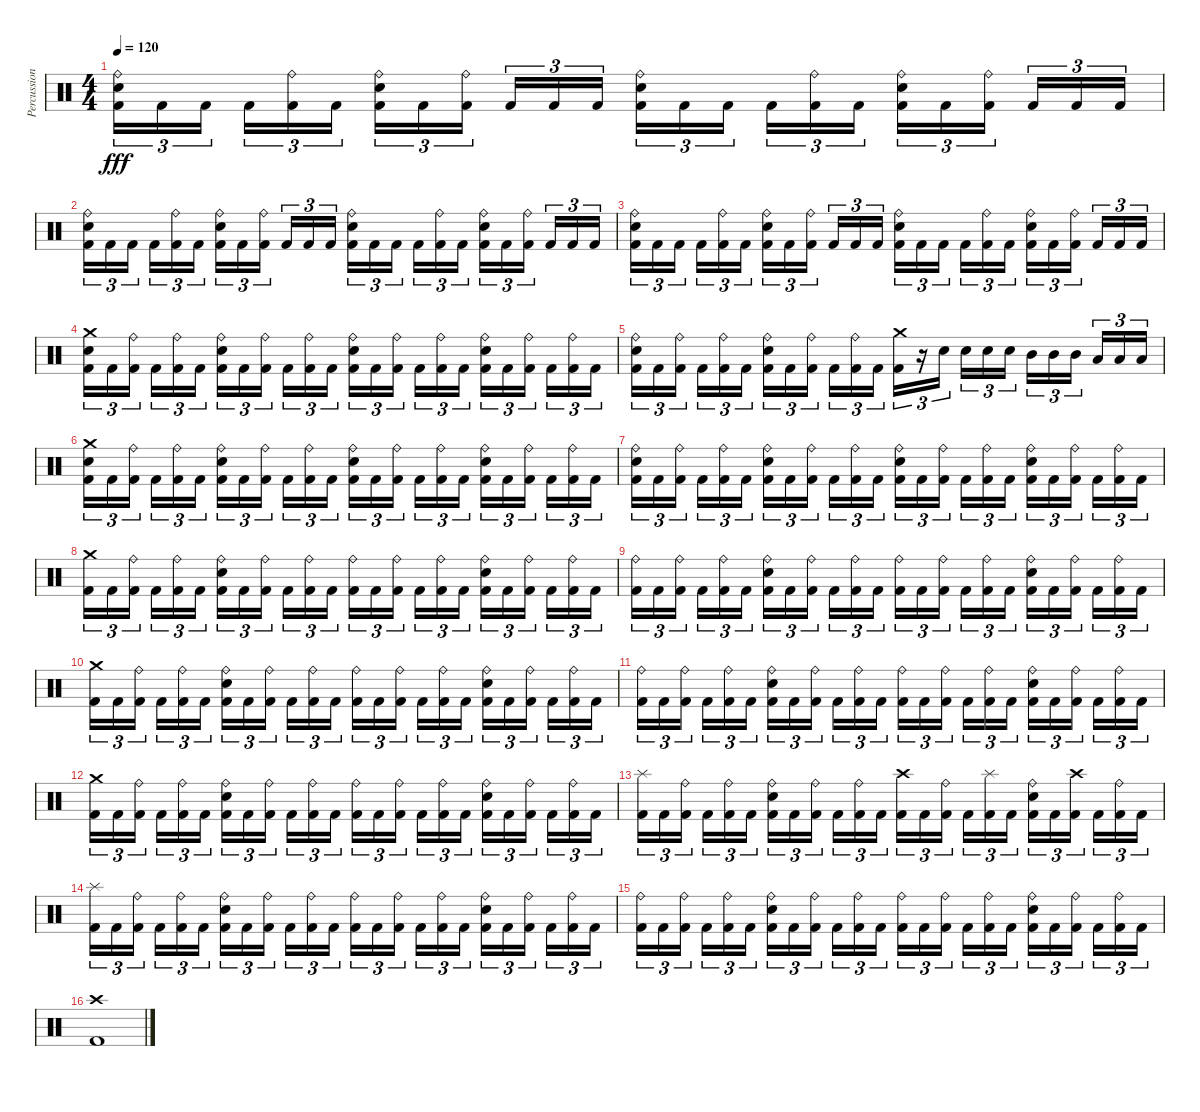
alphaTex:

\track ("Percussions" "Percussion") {instrument percussion}
\staff {score}
\articulation defaults
\ts (4 4)
\tempo 120
\clef neutral
\ks c
("Ride (bell)" "Snare (hit) 2" "Kick (hit) 2").16{tu (3 2) dy fff} "Kick (hit) 2".16{tu (3 2)} "Kick (hit) 2".16{tu (3 2) beam splitsecondary} "Kick (hit) 2".16{tu (3 2)} ("Ride (bell)" "Kick (hit) 2").16{tu (3 2)} "Kick (hit) 2".16{tu (3 2)} ("Ride (bell)" "Snare (hit) 2" "Kick (hit) 2").16{tu (3 2)} "Kick (hit) 2".16{tu (3 2)} ("Ride (bell)" "Kick (hit) 2").16{tu (3 2) beam splitsecondary} "Kick (hit) 2".16{tu (3 2)} "Kick (hit) 2".16{tu (3 2)} "Kick (hit) 2".16{tu (3 2)} ("Ride (bell)" "Snare (hit) 2" "Kick (hit) 2").16{tu (3 2)} "Kick (hit) 2".16{tu (3 2)} "Kick (hit) 2".16{tu (3 2) beam splitsecondary} "Kick (hit) 2".16{tu (3 2)} ("Ride (bell)" "Kick (hit) 2").16{tu (3 2)} "Kick (hit) 2".16{tu (3 2)} ("Ride (bell)" "Snare (hit) 2" "Kick (hit) 2").16{tu (3 2)} "Kick (hit) 2".16{tu (3 2)} ("Ride (bell)" "Kick (hit) 2").16{tu (3 2) beam splitsecondary} "Kick (hit) 2".16{tu (3 2)} "Kick (hit) 2".16{tu (3 2)} "Kick (hit) 2".16{tu (3 2)} |
("Ride (bell)" "Snare (hit) 2" "Kick (hit) 2").16{tu (3 2)} "Kick (hit) 2".16{tu (3 2)} "Kick (hit) 2".16{tu (3 2) beam splitsecondary} "Kick (hit) 2".16{tu (3 2)} ("Ride (bell)" "Kick (hit) 2").16{tu (3 2)} "Kick (hit) 2".16{tu (3 2)} ("Ride (bell)" "Snare (hit) 2" "Kick (hit) 2").16{tu (3 2)} "Kick (hit) 2".16{tu (3 2)} ("Ride (bell)" "Kick (hit) 2").16{tu (3 2) beam splitsecondary} "Kick (hit) 2".16{tu (3 2)} "Kick (hit) 2".16{tu (3 2)} "Kick (hit) 2".16{tu (3 2)} ("Ride (bell)" "Snare (hit) 2" "Kick (hit) 2").16{tu (3 2)} "Kick (hit) 2".16{tu (3 2)} "Kick (hit) 2".16{tu (3 2) beam splitsecondary} "Kick (hit) 2".16{tu (3 2)} ("Ride (bell)" "Kick (hit) 2").16{tu (3 2)} "Kick (hit) 2".16{tu (3 2)} ("Ride (bell)" "Snare (hit) 2" "Kick (hit) 2").16{tu (3 2)} "Kick (hit) 2".16{tu (3 2)} ("Ride (bell)" "Kick (hit) 2").16{tu (3 2) beam splitsecondary} "Kick (hit) 2".16{tu (3 2)} "Kick (hit) 2".16{tu (3 2)} "Kick (hit) 2".16{tu (3 2)} |
("Ride (bell)" "Snare (hit) 2" "Kick (hit) 2").16{tu (3 2)} "Kick (hit) 2".16{tu (3 2)} "Kick (hit) 2".16{tu (3 2) beam splitsecondary} "Kick (hit) 2".16{tu (3 2)} ("Ride (bell)" "Kick (hit) 2").16{tu (3 2)} "Kick (hit) 2".16{tu (3 2)} ("Ride (bell)" "Snare (hit) 2" "Kick (hit) 2").16{tu (3 2)} "Kick (hit) 2".16{tu (3 2)} ("Ride (bell)" "Kick (hit) 2").16{tu (3 2) beam splitsecondary} "Kick (hit) 2".16{tu (3 2)} "Kick (hit) 2".16{tu (3 2)} "Kick (hit) 2".16{tu (3 2)} ("Ride (bell)" "Snare (hit) 2" "Kick (hit) 2").16{tu (3 2)} "Kick (hit) 2".16{tu (3 2)} "Kick (hit) 2".16{tu (3 2) beam splitsecondary} "Kick (hit) 2".16{tu (3 2)} ("Ride (bell)" "Kick (hit) 2").16{tu (3 2)} "Kick (hit) 2".16{tu (3 2)} ("Ride (bell)" "Snare (hit) 2" "Kick (hit) 2").16{tu (3 2)} "Kick (hit) 2".16{tu (3 2)} ("Ride (bell)" "Kick (hit) 2").16{tu (3 2) beam splitsecondary} "Kick (hit) 2".16{tu (3 2)} "Kick (hit) 2".16{tu (3 2)} "Kick (hit) 2".16{tu (3 2)} |
("Crash medium (hit)" "Snare (hit) 2" "Kick (hit) 2").16{tu (3 2)} "Kick (hit) 2".16{tu (3 2)} ("Ride (bell)" "Kick (hit) 2").16{tu (3 2) beam splitsecondary} "Kick (hit) 2".16{tu (3 2)} ("Ride (bell)" "Kick (hit) 2").16{tu (3 2)} "Kick (hit) 2".16{tu (3 2)} ("Ride (bell)" "Snare (hit) 2" "Kick (hit) 2").16{tu (3 2)} "Kick (hit) 2".16{tu (3 2)} ("Ride (bell)" "Kick (hit) 2").16{tu (3 2) beam splitsecondary} "Kick (hit) 2".16{tu (3 2)} ("Ride (bell)" "Kick (hit) 2").16{tu (3 2)} "Kick (hit) 2".16{tu (3 2)} ("Ride (bell)" "Snare (hit) 2" "Kick (hit) 2").16{tu (3 2)} "Kick (hit) 2".16{tu (3 2)} ("Ride (bell)" "Kick (hit) 2").16{tu (3 2) beam splitsecondary} "Kick (hit) 2".16{tu (3 2)} ("Ride (bell)" "Kick (hit) 2").16{tu (3 2)} "Kick (hit) 2".16{tu (3 2)} ("Ride (bell)" "Snare (hit) 2" "Kick (hit) 2").16{tu (3 2)} "Kick (hit) 2".16{tu (3 2)} ("Ride (bell)" "Kick (hit) 2").16{tu (3 2) beam splitsecondary} "Kick (hit) 2".16{tu (3 2)} ("Ride (bell)" "Kick (hit) 2").16{tu (3 2)} "Kick (hit) 2".16{tu (3 2)} |
("Ride (bell)" "Snare (hit) 2" "Kick (hit) 2").16{tu (3 2)} "Kick (hit) 2".16{tu (3 2)} ("Ride (bell)" "Kick (hit) 2").16{tu (3 2) beam splitsecondary} "Kick (hit) 2".16{tu (3 2)} ("Ride (bell)" "Kick (hit) 2").16{tu (3 2)} "Kick (hit) 2".16{tu (3 2)} ("Ride (bell)" "Snare (hit) 2" "Kick (hit) 2").16{tu (3 2)} "Kick (hit) 2".16{tu (3 2)} ("Ride (bell)" "Kick (hit) 2").16{tu (3 2) beam splitsecondary} "Kick (hit) 2".16{tu (3 2)} ("Ride (bell)" "Kick (hit) 2").16{tu (3 2)} "Kick (hit) 2".16{tu (3 2)} ("Crash medium (hit)" "Kick (hit) 2").16{tu (3 2)} r.16{tu (3 2)} "Snare (hit) 2".16{tu (3 2) beam splitsecondary} "Snare (hit) 2".16{tu (3 2)} "Snare (hit) 2".16{tu (3 2)} "Snare (hit) 2".16{tu (3 2)} "Mid Tom (hit)".16{tu (3 2)} "Mid Tom (hit)".16{tu (3 2)} "Mid Tom (hit)".16{tu (3 2) beam splitsecondary} "Low Tom (hit)".16{tu (3 2)} "Low Tom (hit)".16{tu (3 2)} "Low Tom (hit)".16{tu (3 2)} |
("Crash medium (hit)" "Snare (hit) 2" "Kick (hit) 2").16{tu (3 2)} "Kick (hit) 2".16{tu (3 2)} ("Ride (bell)" "Kick (hit) 2").16{tu (3 2) beam splitsecondary} "Kick (hit) 2".16{tu (3 2)} ("Ride (bell)" "Kick (hit) 2").16{tu (3 2)} "Kick (hit) 2".16{tu (3 2)} ("Ride (bell)" "Snare (hit) 2" "Kick (hit) 2").16{tu (3 2)} "Kick (hit) 2".16{tu (3 2)} ("Ride (bell)" "Kick (hit) 2").16{tu (3 2) beam splitsecondary} "Kick (hit) 2".16{tu (3 2)} ("Ride (bell)" "Kick (hit) 2").16{tu (3 2)} "Kick (hit) 2".16{tu (3 2)} ("Ride (bell)" "Snare (hit) 2" "Kick (hit) 2").16{tu (3 2)} "Kick (hit) 2".16{tu (3 2)} ("Ride (bell)" "Kick (hit) 2").16{tu (3 2) beam splitsecondary} "Kick (hit) 2".16{tu (3 2)} ("Ride (bell)" "Kick (hit) 2").16{tu (3 2)} "Kick (hit) 2".16{tu (3 2)} ("Ride (bell)" "Snare (hit) 2" "Kick (hit) 2").16{tu (3 2)} "Kick (hit) 2".16{tu (3 2)} ("Ride (bell)" "Kick (hit) 2").16{tu (3 2) beam splitsecondary} "Kick (hit) 2".16{tu (3 2)} ("Ride (bell)" "Kick (hit) 2").16{tu (3 2)} "Kick (hit) 2".16{tu (3 2)} |
("Ride (bell)" "Snare (hit) 2" "Kick (hit) 2").16{tu (3 2)} "Kick (hit) 2".16{tu (3 2)} ("Ride (bell)" "Kick (hit) 2").16{tu (3 2) beam splitsecondary} "Kick (hit) 2".16{tu (3 2)} ("Ride (bell)" "Kick (hit) 2").16{tu (3 2)} "Kick (hit) 2".16{tu (3 2)} ("Ride (bell)" "Snare (hit) 2" "Kick (hit) 2").16{tu (3 2)} "Kick (hit) 2".16{tu (3 2)} ("Ride (bell)" "Kick (hit) 2").16{tu (3 2) beam splitsecondary} "Kick (hit) 2".16{tu (3 2)} ("Ride (bell)" "Kick (hit) 2").16{tu (3 2)} "Kick (hit) 2".16{tu (3 2)} ("Ride (bell)" "Snare (hit) 2" "Kick (hit) 2").16{tu (3 2)} "Kick (hit) 2".16{tu (3 2)} ("Ride (bell)" "Kick (hit) 2").16{tu (3 2) beam splitsecondary} "Kick (hit) 2".16{tu (3 2)} ("Ride (bell)" "Kick (hit) 2").16{tu (3 2)} "Kick (hit) 2".16{tu (3 2)} ("Ride (bell)" "Snare (hit) 2" "Kick (hit) 2").16{tu (3 2)} "Kick (hit) 2".16{tu (3 2)} ("Ride (bell)" "Kick (hit) 2").16{tu (3 2) beam splitsecondary} "Kick (hit) 2".16{tu (3 2)} ("Ride (bell)" "Kick (hit) 2").16{tu (3 2)} "Kick (hit) 2".16{tu (3 2)} |
("Crash medium (hit)" "Kick (hit) 2").16{tu (3 2)} "Kick (hit) 2".16{tu (3 2)} ("Ride (bell)" "Kick (hit) 2").16{tu (3 2) beam splitsecondary} "Kick (hit) 2".16{tu (3 2)} ("Ride (bell)" "Kick (hit) 2").16{tu (3 2)} "Kick (hit) 2".16{tu (3 2)} ("Ride (bell)" "Snare (hit) 2" "Kick (hit) 2").16{tu (3 2)} "Kick (hit) 2".16{tu (3 2)} ("Ride (bell)" "Kick (hit) 2").16{tu (3 2) beam splitsecondary} "Kick (hit) 2".16{tu (3 2)} ("Ride (bell)" "Kick (hit) 2").16{tu (3 2)} "Kick (hit) 2".16{tu (3 2)} ("Ride (bell)" "Kick (hit) 2").16{tu (3 2)} "Kick (hit) 2".16{tu (3 2)} ("Ride (bell)" "Kick (hit) 2").16{tu (3 2) beam splitsecondary} "Kick (hit) 2".16{tu (3 2)} ("Ride (bell)" "Kick (hit) 2").16{tu (3 2)} "Kick (hit) 2".16{tu (3 2)} ("Ride (bell)" "Snare (hit) 2" "Kick (hit) 2").16{tu (3 2)} "Kick (hit) 2".16{tu (3 2)} ("Ride (bell)" "Kick (hit) 2").16{tu (3 2) beam splitsecondary} "Kick (hit) 2".16{tu (3 2)} ("Ride (bell)" "Kick (hit) 2").16{tu (3 2)} "Kick (hit) 2".16{tu (3 2)} |
("Ride (bell)" "Kick (hit) 2").16{tu (3 2)} "Kick (hit) 2".16{tu (3 2)} ("Ride (bell)" "Kick (hit) 2").16{tu (3 2) beam splitsecondary} "Kick (hit) 2".16{tu (3 2)} ("Ride (bell)" "Kick (hit) 2").16{tu (3 2)} "Kick (hit) 2".16{tu (3 2)} ("Ride (bell)" "Snare (hit) 2" "Kick (hit) 2").16{tu (3 2)} "Kick (hit) 2".16{tu (3 2)} ("Ride (bell)" "Kick (hit) 2").16{tu (3 2) beam splitsecondary} "Kick (hit) 2".16{tu (3 2)} ("Ride (bell)" "Kick (hit) 2").16{tu (3 2)} "Kick (hit) 2".16{tu (3 2)} ("Ride (bell)" "Kick (hit) 2").16{tu (3 2)} "Kick (hit) 2".16{tu (3 2)} ("Ride (bell)" "Kick (hit) 2").16{tu (3 2) beam splitsecondary} "Kick (hit) 2".16{tu (3 2)} ("Ride (bell)" "Kick (hit) 2").16{tu (3 2)} "Kick (hit) 2".16{tu (3 2)} ("Ride (bell)" "Snare (hit) 2" "Kick (hit) 2").16{tu (3 2)} "Kick (hit) 2".16{tu (3 2)} ("Ride (bell)" "Kick (hit) 2").16{tu (3 2) beam splitsecondary} "Kick (hit) 2".16{tu (3 2)} ("Ride (bell)" "Kick (hit) 2").16{tu (3 2)} "Kick (hit) 2".16{tu (3 2)} |
("Crash medium (hit)" "Kick (hit) 2").16{tu (3 2)} "Kick (hit) 2".16{tu (3 2)} ("Ride (bell)" "Kick (hit) 2").16{tu (3 2) beam splitsecondary} "Kick (hit) 2".16{tu (3 2)} ("Ride (bell)" "Kick (hit) 2").16{tu (3 2)} "Kick (hit) 2".16{tu (3 2)} ("Ride (bell)" "Snare (hit) 2" "Kick (hit) 2").16{tu (3 2)} "Kick (hit) 2".16{tu (3 2)} ("Ride (bell)" "Kick (hit) 2").16{tu (3 2) beam splitsecondary} "Kick (hit) 2".16{tu (3 2)} ("Ride (bell)" "Kick (hit) 2").16{tu (3 2)} "Kick (hit) 2".16{tu (3 2)} ("Ride (bell)" "Kick (hit) 2").16{tu (3 2)} "Kick (hit) 2".16{tu (3 2)} ("Ride (bell)" "Kick (hit) 2").16{tu (3 2) beam splitsecondary} "Kick (hit) 2".16{tu (3 2)} ("Ride (bell)" "Kick (hit) 2").16{tu (3 2)} "Kick (hit) 2".16{tu (3 2)} ("Ride (bell)" "Snare (hit) 2" "Kick (hit) 2").16{tu (3 2)} "Kick (hit) 2".16{tu (3 2)} ("Ride (bell)" "Kick (hit) 2").16{tu (3 2) beam splitsecondary} "Kick (hit) 2".16{tu (3 2)} ("Ride (bell)" "Kick (hit) 2").16{tu (3 2)} "Kick (hit) 2".16{tu (3 2)} |
("Ride (bell)" "Kick (hit) 2").16{tu (3 2)} "Kick (hit) 2".16{tu (3 2)} ("Ride (bell)" "Kick (hit) 2").16{tu (3 2) beam splitsecondary} "Kick (hit) 2".16{tu (3 2)} ("Ride (bell)" "Kick (hit) 2").16{tu (3 2)} "Kick (hit) 2".16{tu (3 2)} ("Ride (bell)" "Snare (hit) 2" "Kick (hit) 2").16{tu (3 2)} "Kick (hit) 2".16{tu (3 2)} ("Ride (bell)" "Kick (hit) 2").16{tu (3 2) beam splitsecondary} "Kick (hit) 2".16{tu (3 2)} ("Ride (bell)" "Kick (hit) 2").16{tu (3 2)} "Kick (hit) 2".16{tu (3 2)} ("Ride (bell)" "Kick (hit) 2").16{tu (3 2)} "Kick (hit) 2".16{tu (3 2)} ("Ride (bell)" "Kick (hit) 2").16{tu (3 2) beam splitsecondary} "Kick (hit) 2".16{tu (3 2)} ("Ride (bell)" "Kick (hit) 2").16{tu (3 2)} "Kick (hit) 2".16{tu (3 2)} ("Ride (bell)" "Snare (hit) 2" "Kick (hit) 2").16{tu (3 2)} "Kick (hit) 2".16{tu (3 2)} ("Ride (bell)" "Kick (hit) 2").16{tu (3 2) beam splitsecondary} "Kick (hit) 2".16{tu (3 2)} ("Ride (bell)" "Kick (hit) 2").16{tu (3 2)} "Kick (hit) 2".16{tu (3 2)} |
("Crash medium (hit)" "Kick (hit) 2").16{tu (3 2)} "Kick (hit) 2".16{tu (3 2)} ("Ride (bell)" "Kick (hit) 2").16{tu (3 2) beam splitsecondary} "Kick (hit) 2".16{tu (3 2)} ("Ride (bell)" "Kick (hit) 2").16{tu (3 2)} "Kick (hit) 2".16{tu (3 2)} ("Ride (bell)" "Snare (hit) 2" "Kick (hit) 2").16{tu (3 2)} "Kick (hit) 2".16{tu (3 2)} ("Ride (bell)" "Kick (hit) 2").16{tu (3 2) beam splitsecondary} "Kick (hit) 2".16{tu (3 2)} ("Ride (bell)" "Kick (hit) 2").16{tu (3 2)} "Kick (hit) 2".16{tu (3 2)} ("Ride (bell)" "Kick (hit) 2").16{tu (3 2)} "Kick (hit) 2".16{tu (3 2)} ("Ride (bell)" "Kick (hit) 2").16{tu (3 2) beam splitsecondary} "Kick (hit) 2".16{tu (3 2)} ("Ride (bell)" "Kick (hit) 2").16{tu (3 2)} "Kick (hit) 2".16{tu (3 2)} ("Ride (bell)" "Snare (hit) 2" "Kick (hit) 2").16{tu (3 2)} "Kick (hit) 2".16{tu (3 2)} ("Ride (bell)" "Kick (hit) 2").16{tu (3 2) beam splitsecondary} "Kick (hit) 2".16{tu (3 2)} ("Ride (bell)" "Kick (hit) 2").16{tu (3 2)} "Kick (hit) 2".16{tu (3 2)} |
("Splash (hit)" "Kick (hit) 2").16{tu (3 2)} "Kick (hit) 2".16{tu (3 2)} ("Ride (bell)" "Kick (hit) 2").16{tu (3 2) beam splitsecondary} "Kick (hit) 2".16{tu (3 2)} ("Ride (bell)" "Kick (hit) 2").16{tu (3 2)} "Kick (hit) 2".16{tu (3 2)} ("Ride (bell)" "Snare (hit) 2" "Kick (hit) 2").16{tu (3 2)} "Kick (hit) 2".16{tu (3 2)} ("Ride (bell)" "Kick (hit) 2").16{tu (3 2) beam splitsecondary} "Kick (hit) 2".16{tu (3 2)} ("Ride (bell)" "Kick (hit) 2").16{tu (3 2)} "Kick (hit) 2".16{tu (3 2)} ("Crash high (hit)" "Kick (hit) 2").16{tu (3 2)} "Kick (hit) 2".16{tu (3 2)} ("Ride (bell)" "Kick (hit) 2").16{tu (3 2) beam splitsecondary} "Kick (hit) 2".16{tu (3 2)} ("Splash (hit)" "Kick (hit) 2").16{tu (3 2)} "Kick (hit) 2".16{tu (3 2)} ("Ride (bell)" "Snare (hit) 2" "Kick (hit) 2").16{tu (3 2)} "Kick (hit) 2".16{tu (3 2)} ("Crash high (hit)" "Kick (hit) 2").16{tu (3 2) beam splitsecondary} "Kick (hit) 2".16{tu (3 2)} ("Ride (bell)" "Kick (hit) 2").16{tu (3 2)} "Kick (hit) 2".16{tu (3 2)} |
("Splash (hit)" "Kick (hit) 2").16{tu (3 2)} "Kick (hit) 2".16{tu (3 2)} ("Ride (bell)" "Kick (hit) 2").16{tu (3 2) beam splitsecondary} "Kick (hit) 2".16{tu (3 2)} ("Ride (bell)" "Kick (hit) 2").16{tu (3 2)} "Kick (hit) 2".16{tu (3 2)} ("Ride (bell)" "Snare (hit) 2" "Kick (hit) 2").16{tu (3 2)} "Kick (hit) 2".16{tu (3 2)} ("Ride (bell)" "Kick (hit) 2").16{tu (3 2) beam splitsecondary} "Kick (hit) 2".16{tu (3 2)} ("Ride (bell)" "Kick (hit) 2").16{tu (3 2)} "Kick (hit) 2".16{tu (3 2)} ("Ride (bell)" "Kick (hit) 2").16{tu (3 2)} "Kick (hit) 2".16{tu (3 2)} ("Ride (bell)" "Kick (hit) 2").16{tu (3 2) beam splitsecondary} "Kick (hit) 2".16{tu (3 2)} ("Ride (bell)" "Kick (hit) 2").16{tu (3 2)} "Kick (hit) 2".16{tu (3 2)} ("Ride (bell)" "Snare (hit) 2" "Kick (hit) 2").16{tu (3 2)} "Kick (hit) 2".16{tu (3 2)} ("Ride (bell)" "Kick (hit) 2").16{tu (3 2) beam splitsecondary} "Kick (hit) 2".16{tu (3 2)} ("Ride (bell)" "Kick (hit) 2").16{tu (3 2)} "Kick (hit) 2".16{tu (3 2)} |
("Ride (bell)" "Kick (hit) 2").16{tu (3 2)} "Kick (hit) 2".16{tu (3 2)} ("Ride (bell)" "Kick (hit) 2").16{tu (3 2) beam splitsecondary} "Kick (hit) 2".16{tu (3 2)} ("Ride (bell)" "Kick (hit) 2").16{tu (3 2)} "Kick (hit) 2".16{tu (3 2)} ("Ride (bell)" "Snare (hit) 2" "Kick (hit) 2").16{tu (3 2)} "Kick (hit) 2".16{tu (3 2)} ("Ride (bell)" "Kick (hit) 2").16{tu (3 2) beam splitsecondary} "Kick (hit) 2".16{tu (3 2)} ("Ride (bell)" "Kick (hit) 2").16{tu (3 2)} "Kick (hit) 2".16{tu (3 2)} ("Ride (bell)" "Kick (hit) 2").16{tu (3 2)} "Kick (hit) 2".16{tu (3 2)} ("Ride (bell)" "Kick (hit) 2").16{tu (3 2) beam splitsecondary} "Kick (hit) 2".16{tu (3 2)} ("Ride (bell)" "Kick (hit) 2").16{tu (3 2)} "Kick (hit) 2".16{tu (3 2)} ("Ride (bell)" "Snare (hit) 2" "Kick (hit) 2").16{tu (3 2)} "Kick (hit) 2".16{tu (3 2)} ("Ride (bell)" "Kick (hit) 2").16{tu (3 2) beam splitsecondary} "Kick (hit) 2".16{tu (3 2)} ("Ride (bell)" "Kick (hit) 2").16{tu (3 2)} "Kick (hit) 2".16{tu (3 2)} |
("Crash high (hit)" "Kick (hit) 2").1
